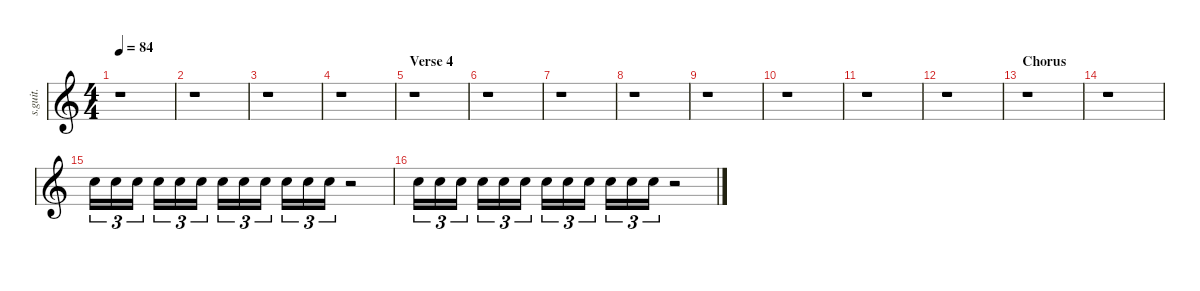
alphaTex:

\defaultSystemsLayout 4
\hideDynamics
\bracketExtendMode nobrackets
\track ("RIngo Starr - Hand Claps" "s.guit.") {instrument percussion}
\staff {score}
\articulation defaults
\ts (4 4)
\tempo 84
\clef g2
\ks c
r.1{dy pp} |
r.1 |
r.1 |
r.1 |
\section ("" "Verse 4")
r.1 |
r.1 |
r.1 |
r.1 |
r.1 |
r.1 |
r.1 |
r.1 |
\section ("" "Chorus")
r.1 |
r.1 |
"Hand Clap (hit)".16{tu (3 2) lyrics (0 "") lyrics (1 "") lyrics (2 "") lyrics (3 "") lyrics (4 "") dy mf} "Hand Clap (hit)".16{tu (3 2) lyrics (0 "") lyrics (1 "") lyrics (2 "") lyrics (3 "") lyrics (4 "")} "Hand Clap (hit)".16{tu (3 2) lyrics (0 "") lyrics (1 "") lyrics (2 "") lyrics (3 "") lyrics (4 "")} "Hand Clap (hit)".16{tu (3 2) lyrics (0 "") lyrics (1 "") lyrics (2 "") lyrics (3 "") lyrics (4 "") dy mp} "Hand Clap (hit)".16{tu (3 2) lyrics (0 "") lyrics (1 "") lyrics (2 "") lyrics (3 "") lyrics (4 "")} "Hand Clap (hit)".16{tu (3 2) lyrics (0 "") lyrics (1 "") lyrics (2 "") lyrics (3 "") lyrics (4 "")} "Hand Clap (hit)".16{tu (3 2) lyrics (0 "") lyrics (1 "") lyrics (2 "") lyrics (3 "") lyrics (4 "") dy p} "Hand Clap (hit)".16{tu (3 2) lyrics (0 "") lyrics (1 "") lyrics (2 "") lyrics (3 "") lyrics (4 "")} "Hand Clap (hit)".16{tu (3 2) lyrics (0 "") lyrics (1 "") lyrics (2 "") lyrics (3 "") lyrics (4 "")} "Hand Clap (hit)".16{tu (3 2) lyrics (0 "") lyrics (1 "") lyrics (2 "") lyrics (3 "") lyrics (4 "") dy pp} "Hand Clap (hit)".16{tu (3 2) lyrics (0 "") lyrics (1 "") lyrics (2 "") lyrics (3 "") lyrics (4 "")} "Hand Clap (hit)".16{tu (3 2) lyrics (0 "") lyrics (1 "") lyrics (2 "") lyrics (3 "") lyrics (4 "")} r.2 |
"Hand Clap (hit)".16{tu (3 2) lyrics (0 "") lyrics (1 "") lyrics (2 "") lyrics (3 "") lyrics (4 "") dy mf} "Hand Clap (hit)".16{tu (3 2) lyrics (0 "") lyrics (1 "") lyrics (2 "") lyrics (3 "") lyrics (4 "")} "Hand Clap (hit)".16{tu (3 2) lyrics (0 "") lyrics (1 "") lyrics (2 "") lyrics (3 "") lyrics (4 "")} "Hand Clap (hit)".16{tu (3 2) lyrics (0 "") lyrics (1 "") lyrics (2 "") lyrics (3 "") lyrics (4 "") dy mp} "Hand Clap (hit)".16{tu (3 2) lyrics (0 "") lyrics (1 "") lyrics (2 "") lyrics (3 "") lyrics (4 "")} "Hand Clap (hit)".16{tu (3 2) lyrics (0 "") lyrics (1 "") lyrics (2 "") lyrics (3 "") lyrics (4 "")} "Hand Clap (hit)".16{tu (3 2) lyrics (0 "") lyrics (1 "") lyrics (2 "") lyrics (3 "") lyrics (4 "") dy p} "Hand Clap (hit)".16{tu (3 2) lyrics (0 "") lyrics (1 "") lyrics (2 "") lyrics (3 "") lyrics (4 "")} "Hand Clap (hit)".16{tu (3 2) lyrics (0 "") lyrics (1 "") lyrics (2 "") lyrics (3 "") lyrics (4 "")} "Hand Clap (hit)".16{tu (3 2) lyrics (0 "") lyrics (1 "") lyrics (2 "") lyrics (3 "") lyrics (4 "") dy pp} "Hand Clap (hit)".16{tu (3 2) lyrics (0 "") lyrics (1 "") lyrics (2 "") lyrics (3 "") lyrics (4 "")} "Hand Clap (hit)".16{tu (3 2) lyrics (0 "") lyrics (1 "") lyrics (2 "") lyrics (3 "") lyrics (4 "")} r.2
